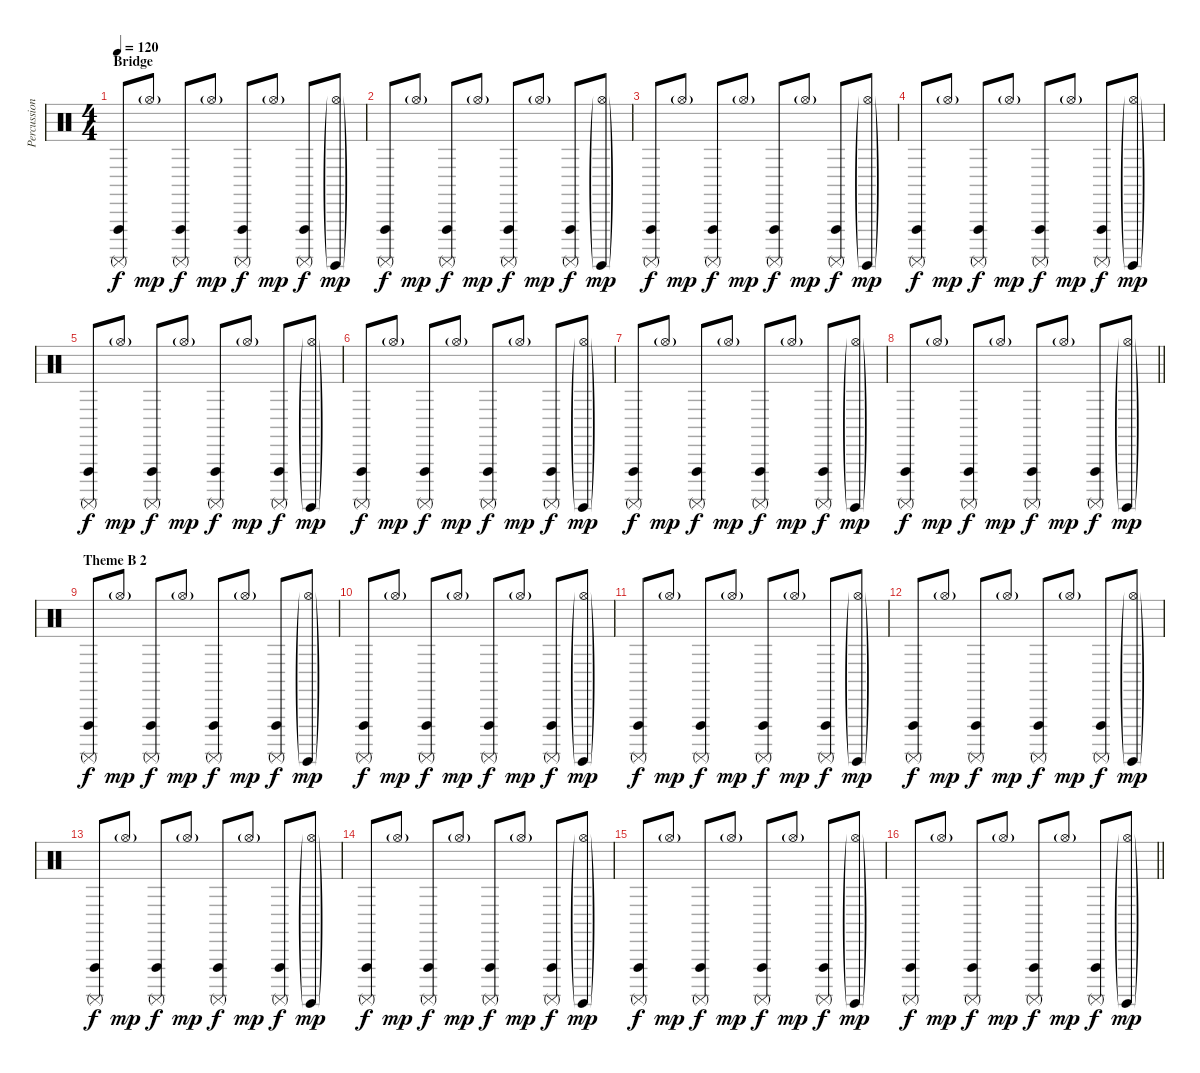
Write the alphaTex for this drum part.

\track ("Percussion 1" "Percussion") {instrument percussion}
\staff {score}
\articulation defaults
\ts (4 4)
\section ("" "Bridge")
\tempo 120
\clef neutral
\ks c
("Surdo (mute)" "Vibraslap (hit)").8{dy f} "Hi-Hat (open)"{g}.8{dy mp} ("Surdo (mute)" "Vibraslap (hit)").8{dy f} "Hi-Hat (open)"{g}.8{dy mp} ("Surdo (mute)" "Vibraslap (hit)").8{dy f} "Hi-Hat (open)"{g}.8{dy mp} ("Surdo (mute)" "Vibraslap (hit)").8{dy f} ("Surdo (hit)"{g} "Hi-Hat (open)"{g}).8{dy mp} |
("Surdo (mute)" "Vibraslap (hit)").8{dy f} "Hi-Hat (open)"{g}.8{dy mp} ("Surdo (mute)" "Vibraslap (hit)").8{dy f} "Hi-Hat (open)"{g}.8{dy mp} ("Surdo (mute)" "Vibraslap (hit)").8{dy f} "Hi-Hat (open)"{g}.8{dy mp} ("Surdo (mute)" "Vibraslap (hit)").8{dy f} ("Surdo (hit)"{g} "Hi-Hat (open)"{g}).8{dy mp} |
("Surdo (mute)" "Vibraslap (hit)").8{dy f} "Hi-Hat (open)"{g}.8{dy mp} ("Surdo (mute)" "Vibraslap (hit)").8{dy f} "Hi-Hat (open)"{g}.8{dy mp} ("Surdo (mute)" "Vibraslap (hit)").8{dy f} "Hi-Hat (open)"{g}.8{dy mp} ("Surdo (mute)" "Vibraslap (hit)").8{dy f} ("Surdo (hit)"{g} "Hi-Hat (open)"{g}).8{dy mp} |
("Surdo (mute)" "Vibraslap (hit)").8{dy f} "Hi-Hat (open)"{g}.8{dy mp} ("Surdo (mute)" "Vibraslap (hit)").8{dy f} "Hi-Hat (open)"{g}.8{dy mp} ("Surdo (mute)" "Vibraslap (hit)").8{dy f} "Hi-Hat (open)"{g}.8{dy mp} ("Surdo (mute)" "Vibraslap (hit)").8{dy f} ("Surdo (hit)"{g} "Hi-Hat (open)"{g}).8{dy mp} |
("Surdo (mute)" "Vibraslap (hit)").8{dy f} "Hi-Hat (open)"{g}.8{dy mp} ("Surdo (mute)" "Vibraslap (hit)").8{dy f} "Hi-Hat (open)"{g}.8{dy mp} ("Surdo (mute)" "Vibraslap (hit)").8{dy f} "Hi-Hat (open)"{g}.8{dy mp} ("Surdo (mute)" "Vibraslap (hit)").8{dy f} ("Surdo (hit)"{g} "Hi-Hat (open)"{g}).8{dy mp} |
("Surdo (mute)" "Vibraslap (hit)").8{dy f} "Hi-Hat (open)"{g}.8{dy mp} ("Surdo (mute)" "Vibraslap (hit)").8{dy f} "Hi-Hat (open)"{g}.8{dy mp} ("Surdo (mute)" "Vibraslap (hit)").8{dy f} "Hi-Hat (open)"{g}.8{dy mp} ("Surdo (mute)" "Vibraslap (hit)").8{dy f} ("Surdo (hit)"{g} "Hi-Hat (open)"{g}).8{dy mp} |
("Surdo (mute)" "Vibraslap (hit)").8{dy f} "Hi-Hat (open)"{g}.8{dy mp} ("Surdo (mute)" "Vibraslap (hit)").8{dy f} "Hi-Hat (open)"{g}.8{dy mp} ("Surdo (mute)" "Vibraslap (hit)").8{dy f} "Hi-Hat (open)"{g}.8{dy mp} ("Surdo (mute)" "Vibraslap (hit)").8{dy f} ("Surdo (hit)"{g} "Hi-Hat (open)"{g}).8{dy mp} |
\barLineRight lightlight
("Surdo (mute)" "Vibraslap (hit)").8{dy f} "Hi-Hat (open)"{g}.8{dy mp} ("Surdo (mute)" "Vibraslap (hit)").8{dy f} "Hi-Hat (open)"{g}.8{dy mp} ("Surdo (mute)" "Vibraslap (hit)").8{dy f} "Hi-Hat (open)"{g}.8{dy mp} ("Surdo (mute)" "Vibraslap (hit)").8{dy f} ("Surdo (hit)"{g} "Hi-Hat (open)"{g}).8{dy mp} |
\section ("" "Theme B 2")
("Surdo (mute)" "Vibraslap (hit)").8{dy f} "Hi-Hat (open)"{g}.8{dy mp} ("Surdo (mute)" "Vibraslap (hit)").8{dy f} "Hi-Hat (open)"{g}.8{dy mp} ("Surdo (mute)" "Vibraslap (hit)").8{dy f} "Hi-Hat (open)"{g}.8{dy mp} ("Surdo (mute)" "Vibraslap (hit)").8{dy f} ("Surdo (hit)"{g} "Hi-Hat (open)"{g}).8{dy mp} |
("Surdo (mute)" "Vibraslap (hit)").8{dy f} "Hi-Hat (open)"{g}.8{dy mp} ("Surdo (mute)" "Vibraslap (hit)").8{dy f} "Hi-Hat (open)"{g}.8{dy mp} ("Surdo (mute)" "Vibraslap (hit)").8{dy f} "Hi-Hat (open)"{g}.8{dy mp} ("Surdo (mute)" "Vibraslap (hit)").8{dy f} ("Surdo (hit)"{g} "Hi-Hat (open)"{g}).8{dy mp} |
("Surdo (mute)" "Vibraslap (hit)").8{dy f} "Hi-Hat (open)"{g}.8{dy mp} ("Surdo (mute)" "Vibraslap (hit)").8{dy f} "Hi-Hat (open)"{g}.8{dy mp} ("Surdo (mute)" "Vibraslap (hit)").8{dy f} "Hi-Hat (open)"{g}.8{dy mp} ("Surdo (mute)" "Vibraslap (hit)").8{dy f} ("Surdo (hit)"{g} "Hi-Hat (open)"{g}).8{dy mp} |
("Surdo (mute)" "Vibraslap (hit)").8{dy f} "Hi-Hat (open)"{g}.8{dy mp} ("Surdo (mute)" "Vibraslap (hit)").8{dy f} "Hi-Hat (open)"{g}.8{dy mp} ("Surdo (mute)" "Vibraslap (hit)").8{dy f} "Hi-Hat (open)"{g}.8{dy mp} ("Surdo (mute)" "Vibraslap (hit)").8{dy f} ("Surdo (hit)"{g} "Hi-Hat (open)"{g}).8{dy mp} |
("Surdo (mute)" "Vibraslap (hit)").8{dy f} "Hi-Hat (open)"{g}.8{dy mp} ("Surdo (mute)" "Vibraslap (hit)").8{dy f} "Hi-Hat (open)"{g}.8{dy mp} ("Surdo (mute)" "Vibraslap (hit)").8{dy f} "Hi-Hat (open)"{g}.8{dy mp} ("Surdo (mute)" "Vibraslap (hit)").8{dy f} ("Surdo (hit)"{g} "Hi-Hat (open)"{g}).8{dy mp} |
("Surdo (mute)" "Vibraslap (hit)").8{dy f} "Hi-Hat (open)"{g}.8{dy mp} ("Surdo (mute)" "Vibraslap (hit)").8{dy f} "Hi-Hat (open)"{g}.8{dy mp} ("Surdo (mute)" "Vibraslap (hit)").8{dy f} "Hi-Hat (open)"{g}.8{dy mp} ("Surdo (mute)" "Vibraslap (hit)").8{dy f} ("Surdo (hit)"{g} "Hi-Hat (open)"{g}).8{dy mp} |
("Surdo (mute)" "Vibraslap (hit)").8{dy f} "Hi-Hat (open)"{g}.8{dy mp} ("Surdo (mute)" "Vibraslap (hit)").8{dy f} "Hi-Hat (open)"{g}.8{dy mp} ("Surdo (mute)" "Vibraslap (hit)").8{dy f} "Hi-Hat (open)"{g}.8{dy mp} ("Surdo (mute)" "Vibraslap (hit)").8{dy f} ("Surdo (hit)"{g} "Hi-Hat (open)"{g}).8{dy mp} |
\barLineRight lightlight
("Surdo (mute)" "Vibraslap (hit)").8{dy f} "Hi-Hat (open)"{g}.8{dy mp} ("Surdo (mute)" "Vibraslap (hit)").8{dy f} "Hi-Hat (open)"{g}.8{dy mp} ("Surdo (mute)" "Vibraslap (hit)").8{dy f} "Hi-Hat (open)"{g}.8{dy mp} ("Surdo (mute)" "Vibraslap (hit)").8{dy f} ("Surdo (hit)"{g} "Hi-Hat (open)"{g}).8{dy mp}
